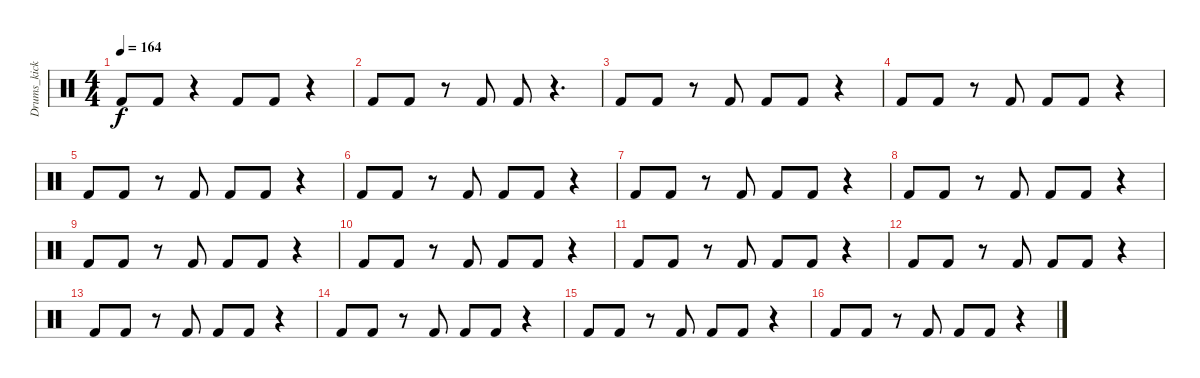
\track ("Drums_kick" "Drums_kick") {instrument percussion}
\staff {score}
\articulation defaults
\ts (4 4)
\tempo 164
\clef neutral
\ks c "Kick (hit) 2".8{dy f} "Kick (hit) 2".8
r.4 "Kick (hit) 2".8 "Kick (hit) 2".8 r.4 |
"Kick (hit) 2".8 "Kick (hit) 2".8 r.8 "Kick (hit) 2".8 "Kick (hit) 2".8 r.4{d} |
"Kick (hit) 2".8 "Kick (hit) 2".8 r.8 "Kick (hit) 2".8 "Kick (hit) 2".8 "Kick (hit) 2".8 r.4 |
"Kick (hit) 2".8 "Kick (hit) 2".8 r.8 "Kick (hit) 2".8 "Kick (hit) 2".8 "Kick (hit) 2".8 r.4 |
"Kick (hit) 2".8 "Kick (hit) 2".8 r.8 "Kick (hit) 2".8 "Kick (hit) 2".8 "Kick (hit) 2".8 r.4 |
"Kick (hit) 2".8 "Kick (hit) 2".8 r.8 "Kick (hit) 2".8 "Kick (hit) 2".8 "Kick (hit) 2".8 r.4 |
"Kick (hit) 2".8 "Kick (hit) 2".8 r.8 "Kick (hit) 2".8 "Kick (hit) 2".8 "Kick (hit) 2".8 r.4 |
"Kick (hit) 2".8 "Kick (hit) 2".8 r.8 "Kick (hit) 2".8 "Kick (hit) 2".8 "Kick (hit) 2".8 r.4 |
"Kick (hit) 2".8 "Kick (hit) 2".8 r.8 "Kick (hit) 2".8 "Kick (hit) 2".8 "Kick (hit) 2".8 r.4 |
"Kick (hit) 2".8 "Kick (hit) 2".8 r.8 "Kick (hit) 2".8 "Kick (hit) 2".8 "Kick (hit) 2".8 r.4 |
"Kick (hit) 2".8 "Kick (hit) 2".8 r.8 "Kick (hit) 2".8 "Kick (hit) 2".8 "Kick (hit) 2".8 r.4 |
"Kick (hit) 2".8 "Kick (hit) 2".8 r.8 "Kick (hit) 2".8 "Kick (hit) 2".8 "Kick (hit) 2".8 r.4 |
"Kick (hit) 2".8 "Kick (hit) 2".8 r.8 "Kick (hit) 2".8 "Kick (hit) 2".8 "Kick (hit) 2".8 r.4 |
"Kick (hit) 2".8 "Kick (hit) 2".8 r.8 "Kick (hit) 2".8 "Kick (hit) 2".8 "Kick (hit) 2".8 r.4 |
"Kick (hit) 2".8 "Kick (hit) 2".8 r.8 "Kick (hit) 2".8 "Kick (hit) 2".8 "Kick (hit) 2".8 r.4 |
"Kick (hit) 2".8 "Kick (hit) 2".8 r.8 "Kick (hit) 2".8 "Kick (hit) 2".8 "Kick (hit) 2".8 r.4
